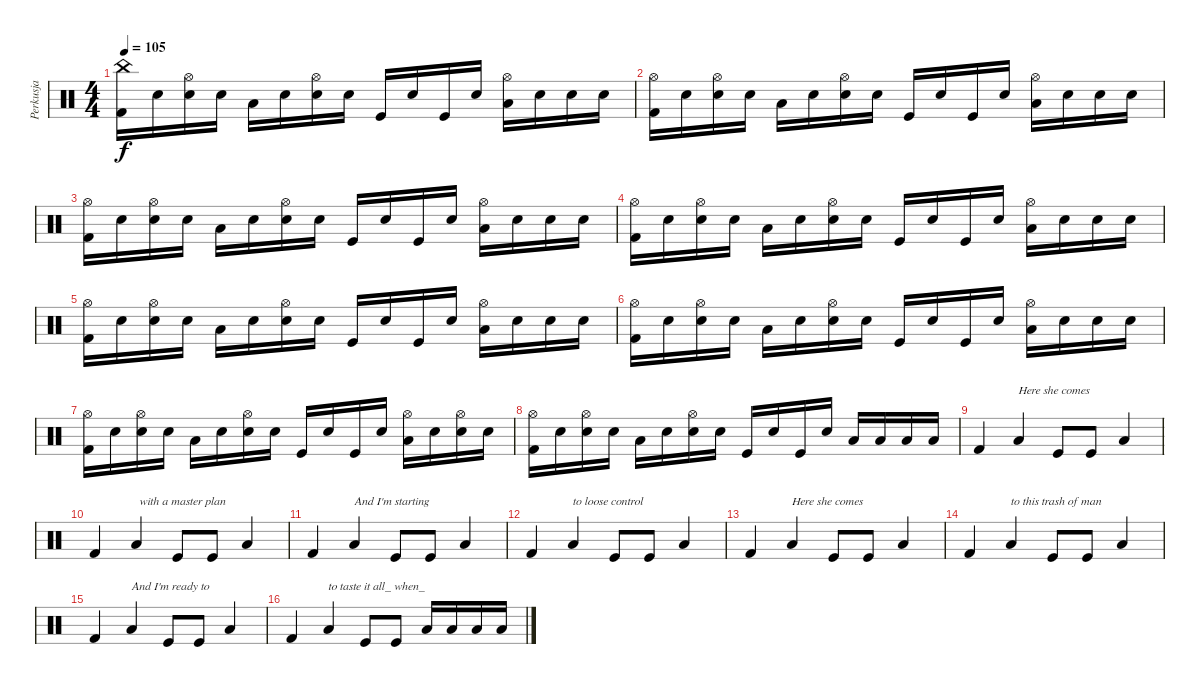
\track ("Perkusja" "Perkusja") {instrument percussion}
\staff {score}
\articulation defaults
\ts (4 4)
\tempo 105
\clef neutral
\ks c
("China (hit)" "Kick (hit) 2").16{dy f} "Snare (hit)".16 ("Hi-Hat (open)" "Snare (hit)").16 "Snare (hit)".16 "Low Tom (hit)".16 "Snare (hit)".16 ("Hi-Hat (open)" "Snare (hit)").16 "Snare (hit)".16 "Kick (hit)".16 "Snare (hit)".16 "Kick (hit)".16 "Snare (hit)".16 ("Hi-Hat (open)" "Low Tom (hit)").16 "Snare (hit)".16 "Snare (hit)".16 "Snare (hit)".16 |
("Hi-Hat (open)" "Kick (hit) 2").16 "Snare (hit)".16 ("Hi-Hat (open)" "Snare (hit)").16 "Snare (hit)".16 "Low Tom (hit)".16 "Snare (hit)".16 ("Hi-Hat (open)" "Snare (hit)").16 "Snare (hit)".16 "Kick (hit)".16 "Snare (hit)".16 "Kick (hit)".16 "Snare (hit)".16 ("Hi-Hat (open)" "Low Tom (hit)").16 "Snare (hit)".16 "Snare (hit)".16 "Snare (hit)".16 |
("Hi-Hat (open)" "Kick (hit) 2").16 "Snare (hit)".16 ("Hi-Hat (open)" "Snare (hit)").16 "Snare (hit)".16 "Low Tom (hit)".16 "Snare (hit)".16 ("Hi-Hat (open)" "Snare (hit)").16 "Snare (hit)".16 "Kick (hit)".16 "Snare (hit)".16 "Kick (hit)".16 "Snare (hit)".16 ("Hi-Hat (open)" "Low Tom (hit)").16 "Snare (hit)".16 "Snare (hit)".16 "Snare (hit)".16 |
("Hi-Hat (open)" "Kick (hit) 2").16 "Snare (hit)".16 ("Hi-Hat (open)" "Snare (hit)").16 "Snare (hit)".16 "Low Tom (hit)".16 "Snare (hit)".16 ("Hi-Hat (open)" "Snare (hit)").16 "Snare (hit)".16 "Kick (hit)".16 "Snare (hit)".16 "Kick (hit)".16 "Snare (hit)".16 ("Hi-Hat (open)" "Low Tom (hit)").16 "Snare (hit)".16 "Snare (hit)".16 "Snare (hit)".16 |
("Hi-Hat (open)" "Kick (hit) 2").16 "Snare (hit)".16 ("Hi-Hat (open)" "Snare (hit)").16 "Snare (hit)".16 "Low Tom (hit)".16 "Snare (hit)".16 ("Hi-Hat (open)" "Snare (hit)").16 "Snare (hit)".16 "Kick (hit)".16 "Snare (hit)".16 "Kick (hit)".16 "Snare (hit)".16 ("Hi-Hat (open)" "Low Tom (hit)").16 "Snare (hit)".16 "Snare (hit)".16 "Snare (hit)".16 |
("Hi-Hat (open)" "Kick (hit) 2").16 "Snare (hit)".16 ("Hi-Hat (open)" "Snare (hit)").16 "Snare (hit)".16 "Low Tom (hit)".16 "Snare (hit)".16 ("Hi-Hat (open)" "Snare (hit)").16 "Snare (hit)".16 "Kick (hit)".16 "Snare (hit)".16 "Kick (hit)".16 "Snare (hit)".16 ("Hi-Hat (open)" "Low Tom (hit)").16 "Snare (hit)".16 "Snare (hit)".16 "Snare (hit)".16 |
("Hi-Hat (open)" "Kick (hit) 2").16 "Snare (hit)".16 ("Hi-Hat (open)" "Snare (hit)").16 "Snare (hit)".16 "Low Tom (hit)".16 "Snare (hit)".16 ("Hi-Hat (open)" "Snare (hit)").16 "Snare (hit)".16 "Kick (hit)".16 "Snare (hit)".16 "Kick (hit)".16 "Snare (hit)".16 ("Hi-Hat (open)" "Low Tom (hit)").16 "Snare (hit)".16 ("Hi-Hat (open)" "Snare (hit)").16 "Snare (hit)".16 |
("Hi-Hat (open)" "Kick (hit) 2").16 "Snare (hit)".16 ("Hi-Hat (open)" "Snare (hit)").16 "Snare (hit)".16 "Low Tom (hit)".16 "Snare (hit)".16 ("Hi-Hat (open)" "Snare (hit)").16 "Snare (hit)".16 "Kick (hit)".16 "Snare (hit)".16 "Kick (hit)".16 "Snare (hit)".16 "Low Tom (hit)".16 "Low Tom (hit)".16 "Low Tom (hit)".16 "Low Tom (hit)".16 |
"Kick (hit) 2".4 "Low Tom (hit)".4{txt "Here she comes"} "Kick (hit)".8 "Kick (hit)".8 "Low Tom (hit)".4 |
"Kick (hit) 2".4 "Low Tom (hit)".4{txt " with a master plan"} "Kick (hit)".8 "Kick (hit)".8 "Low Tom (hit)".4 |
"Kick (hit) 2".4 "Low Tom (hit)".4{txt "And I'm starting "} "Kick (hit)".8 "Kick (hit)".8 "Low Tom (hit)".4 |
"Kick (hit) 2".4 "Low Tom (hit)".4{txt "to loose control"} "Kick (hit)".8 "Kick (hit)".8 "Low Tom (hit)".4 |
"Kick (hit) 2".4 "Low Tom (hit)".4{txt "Here she comes "} "Kick (hit)".8 "Kick (hit)".8 "Low Tom (hit)".4 |
"Kick (hit) 2".4 "Low Tom (hit)".4{txt "to this trash of man"} "Kick (hit)".8 "Kick (hit)".8 "Low Tom (hit)".4 |
"Kick (hit) 2".4 "Low Tom (hit)".4{txt "And I'm ready to "} "Kick (hit)".8 "Kick (hit)".8 "Low Tom (hit)".4 |
"Kick (hit) 2".4 "Low Tom (hit)".4{txt "to taste it all_ when_"} "Kick (hit)".8 "Kick (hit)".8 "Low Tom (hit)".16 "Low Tom (hit)".16 "Low Tom (hit)".16 "Low Tom (hit)".16
